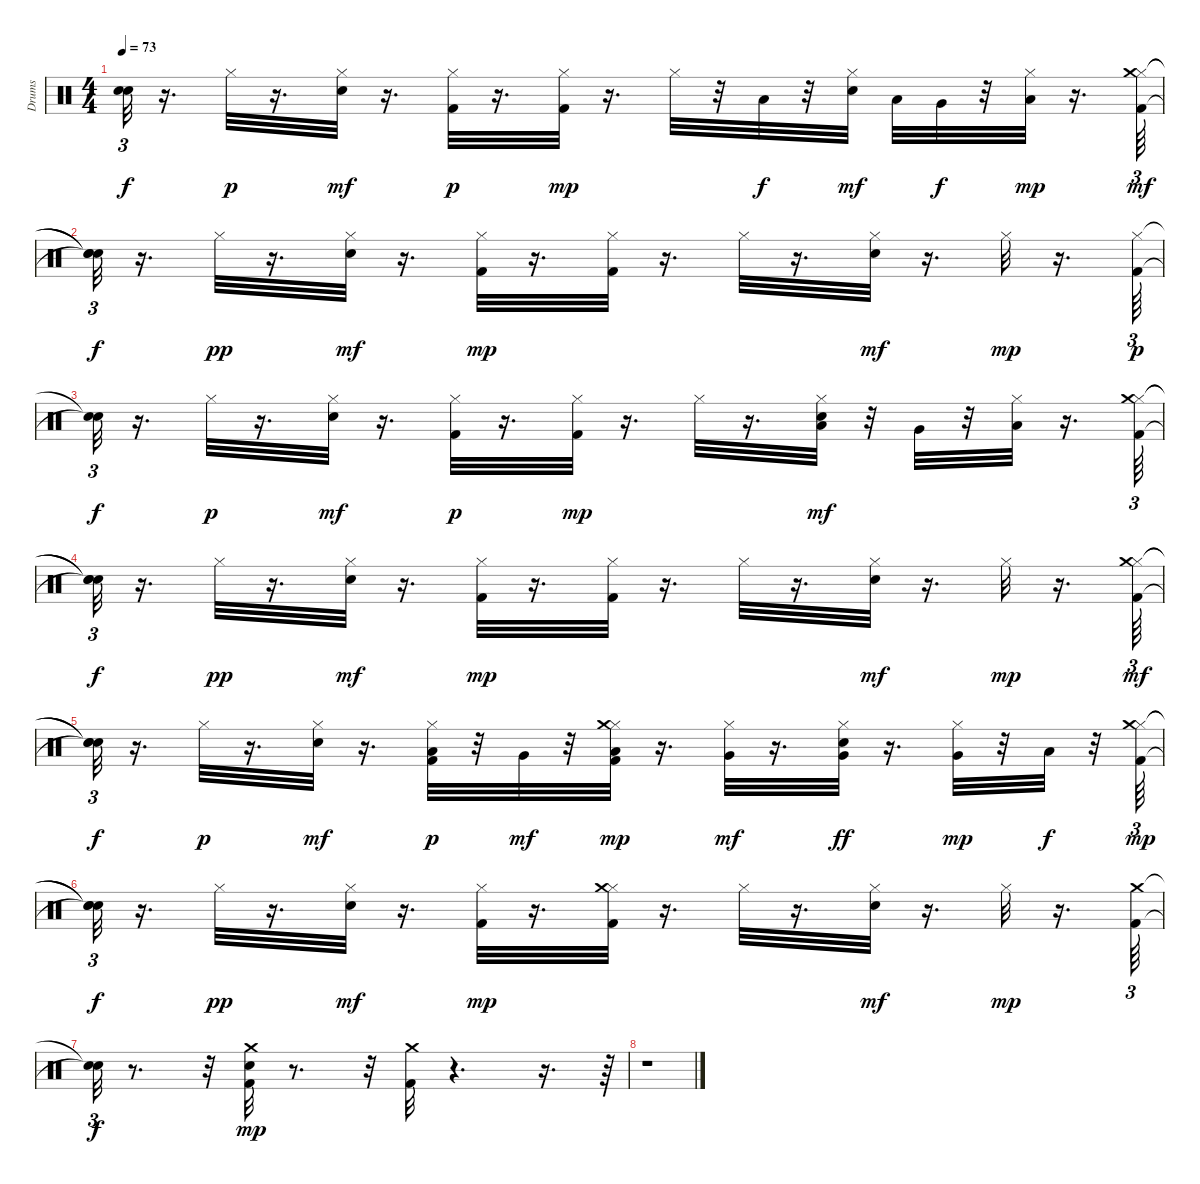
\track ("Drums" "Drums") {instrument percussion}
\staff {score}
\articulation defaults
\ts (4 4)
\tempo 73
\clef neutral
\ks c
("Snare (hit)"{t} "Snare (hit)"{t}).32{tu (3 2) dy f} r.16{d} "Hi-Hat (closed)".32{dy p} r.16{d} ("Snare (hit) 2" "Hi-Hat (closed)").32{dy mf} r.16{d} ("Kick (hit) 2" "Hi-Hat (closed)").32{dy p} r.16{d} ("Kick (hit) 2" "Hi-Hat (closed)").32{dy mp} r.16{d} "Hi-Hat (closed)".32 r.32 "Low Floor Tom (hit)".32{dy f} r.32 ("Snare (hit) 2" "Hi-Hat (closed)").32{dy mf} "Low Tom (hit)".32 "Very Low Tom (hit)".32{dy f} r.32 ("Low Floor Tom (hit)" "Hi-Hat (closed)").32{dy mp} r.16{d} ("Kick (hit) 2" "Hi-Hat (closed)" "Crash medium (hit)").64{tu (3 2) dy mf} |
("Snare (hit)"{t} "Snare (hit)"{t} "Snare (hit)"{t}).32{tu (3 2) dy f} r.16{d} "Hi-Hat (closed)".32{dy pp} r.16{d} ("Snare (hit) 2" "Hi-Hat (closed)").32{dy mf} r.16{d} ("Kick (hit) 2" "Hi-Hat (closed)").32{dy mp} r.16{d} ("Kick (hit) 2" "Hi-Hat (closed)").32 r.16{d} "Hi-Hat (closed)".32 r.16{d} ("Snare (hit) 2" "Hi-Hat (closed)").32{dy mf} r.16{d} "Hi-Hat (closed)".32{dy mp} r.16{d} ("Kick (hit) 2" "Hi-Hat (closed)").64{tu (3 2) dy p} |
("Snare (hit)"{t} "Snare (hit)"{t}).32{tu (3 2) dy f} r.16{d} "Hi-Hat (closed)".32{dy p} r.16{d} ("Snare (hit) 2" "Hi-Hat (closed)").32{dy mf} r.16{d} ("Kick (hit) 2" "Hi-Hat (closed)").32{dy p} r.16{d} ("Kick (hit) 2" "Hi-Hat (closed)").32{dy mp} r.16{d} "Hi-Hat (closed)".32 r.16{d} ("Snare (hit) 2" "Hi-Hat (closed)" "Low Tom (hit)").32{dy mf} r.32 "Very Low Tom (hit)".32 r.32 ("Hi-Hat (closed)" "Low Tom (hit)").32 r.16{d} ("Kick (hit) 2" "Hi-Hat (closed)" "Crash medium (hit)").64{tu (3 2)} |
("Snare (hit)"{t} "Snare (hit)"{t} "Snare (hit)"{t}).32{tu (3 2) dy f} r.16{d} "Hi-Hat (closed)".32{dy pp} r.16{d} ("Snare (hit) 2" "Hi-Hat (closed)").32{dy mf} r.16{d} ("Kick (hit) 2" "Hi-Hat (closed)").32{dy mp} r.16{d} ("Kick (hit) 2" "Hi-Hat (closed)").32 r.16{d} "Hi-Hat (closed)".32 r.16{d} ("Snare (hit) 2" "Hi-Hat (closed)").32{dy mf} r.16{d} "Hi-Hat (closed)".32{dy mp} r.16{d} ("Kick (hit) 2" "Hi-Hat (closed)" "Crash medium (hit)").64{tu (3 2) dy mf} |
("Snare (hit)"{t} "Snare (hit)"{t} "Snare (hit)"{t}).32{tu (3 2) dy f} r.16{d} "Hi-Hat (closed)".32{dy p} r.16{d} ("Snare (hit) 2" "Hi-Hat (closed)").32{dy mf} r.16{d} ("Kick (hit) 2" "Hi-Hat (closed)" "Low Tom (hit)").32{dy p} r.32 "Very Low Tom (hit)".32{dy mf} r.32 ("Kick (hit) 2" "Hi-Hat (closed)" "Crash medium (hit)" "Low Tom (hit)").32{dy mp} r.16{d} ("Hi-Hat (closed)" "Very Low Tom (hit)").32{dy mf} r.16{d} ("Snare (hit) 2" "Hi-Hat (closed)" "Very Low Tom (hit)").32{dy ff} r.16{d} ("Hi-Hat (closed)" "Very Low Tom (hit)").32{dy mp} r.32 "Low Tom (hit)".32{dy f} r.32 ("Kick (hit) 2" "Hi-Hat (closed)" "Crash medium (hit)").64{tu (3 2) dy mp} |
("Snare (hit)"{t} "Snare (hit)"{t} "Snare (hit)"{t}).32{tu (3 2) dy f} r.16{d} "Hi-Hat (closed)".32{dy pp} r.16{d} ("Snare (hit) 2" "Hi-Hat (closed)").32{dy mf} r.16{d} ("Kick (hit) 2" "Hi-Hat (closed)").32{dy mp} r.16{d} ("Kick (hit) 2" "Hi-Hat (closed)" "Crash medium (hit)").32 r.16{d} "Hi-Hat (closed)".32 r.16{d} ("Snare (hit) 2" "Hi-Hat (closed)").32{dy mf} r.16{d} "Hi-Hat (closed)".32{dy mp} r.16{d} ("Kick (hit) 2" "Crash medium (hit)").64{tu (3 2)} |
("Snare (hit)"{t} "Snare (hit)"{t}).32{tu (3 2) dy f} r.8{d} r.32 ("Kick (hit) 2" "Snare (hit) 2" "Crash medium (hit)").32{dy mp} r.8{d} r.32 ("Kick (hit) 2" "Crash medium (hit)").32 r.4{d} r.16{d} r.64{tu (3 2)} |
r.1
